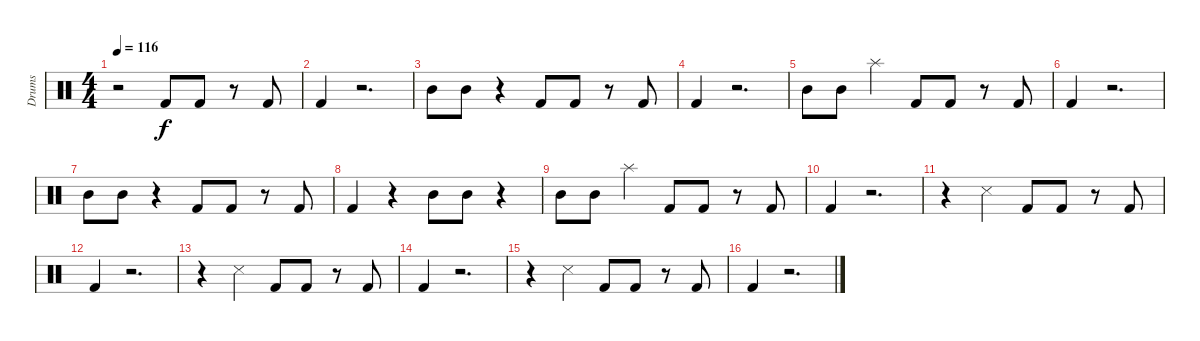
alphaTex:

\track ("Drums" "Drums") {instrument percussion}
\staff {score}
\articulation defaults
\ts (4 4)
\tempo 116
\clef neutral
\ks c
r.2{dy f} "Kick (hit) 2".8 "Kick (hit) 2".8 r.8 "Kick (hit) 2".8 |
"Kick (hit) 2".4 r.2{d} |
"Mid Tom (hit)".8 "Mid Tom (hit)".8 r.4 "Kick (hit) 2".8 "Kick (hit) 2".8 r.8 "Kick (hit) 2".8 |
"Kick (hit) 2".4 r.2{d} |
"Mid Tom (hit)".8 "Mid Tom (hit)".8 "Splash (hit)".4 "Kick (hit) 2".8 "Kick (hit) 2".8 r.8 "Kick (hit) 2".8 |
"Kick (hit) 2".4 r.2{d} |
"Mid Tom (hit)".8 "Mid Tom (hit)".8 r.4 "Kick (hit) 2".8 "Kick (hit) 2".8 r.8 "Kick (hit) 2".8 |
"Kick (hit) 2".4 r.4 "Mid Tom (hit)".8 "Mid Tom (hit)".8 r.4 |
"Mid Tom (hit)".8 "Mid Tom (hit)".8 "Splash (hit)".4 "Kick (hit) 2".8 "Kick (hit) 2".8 r.8 "Kick (hit) 2".8 |
"Kick (hit) 2".4 r.2{d} |
r.4 "Metronome (hit)".4 "Kick (hit) 2".8 "Kick (hit) 2".8 r.8 "Kick (hit) 2".8 |
"Kick (hit) 2".4 r.2{d} |
r.4 "Metronome (hit)".4 "Kick (hit) 2".8 "Kick (hit) 2".8 r.8 "Kick (hit) 2".8 |
"Kick (hit) 2".4 r.2{d} |
r.4 "Metronome (hit)".4 "Kick (hit) 2".8 "Kick (hit) 2".8 r.8 "Kick (hit) 2".8 |
"Kick (hit) 2".4 r.2{d}
